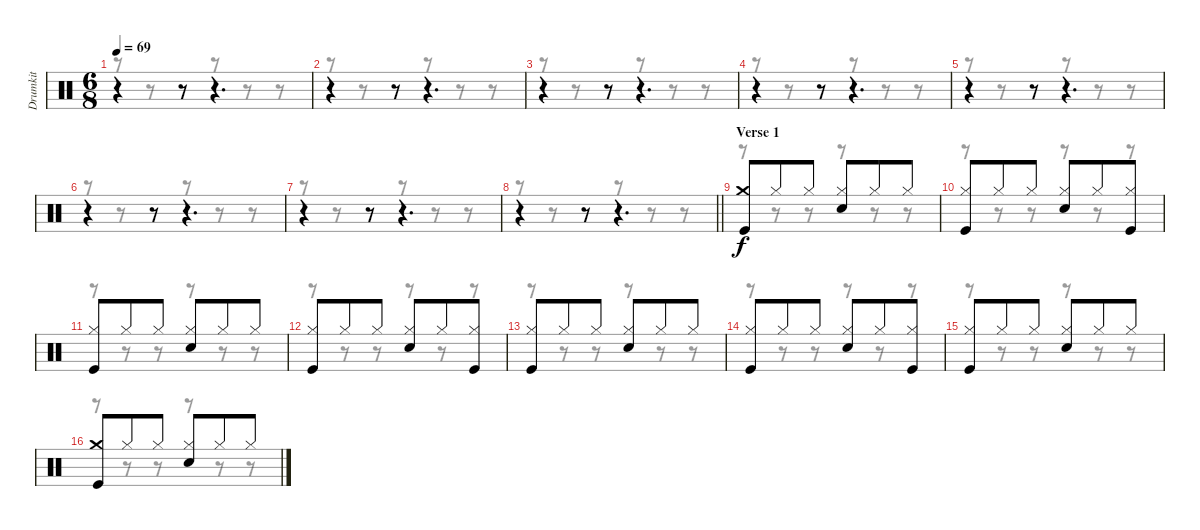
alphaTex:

\track ("Drumkit" "Drumkit") {instrument percussion}
\staff {score}
\articulation defaults
\voice
\ts (6 8)
\tempo 69
\clef neutral
\ks c
r.4{dy f} r.8 r.4{d} |
r.4 r.8 r.4{d} |
r.4 r.8 r.4{d} |
r.4 r.8 r.4{d} |
r.4 r.8 r.4{d} |
r.4 r.8 r.4{d} |
r.4 r.8 r.4{d} |
\barLineRight lightlight
r.4 r.8 r.4{d} |
\section ("" "Verse 1")
("Crash medium (hit)" "Kick (hit)").8 "Hi-Hat (closed)".8 "Hi-Hat (closed)".8 ("Hi-Hat (closed)" "Snare (hit) 2").8 "Hi-Hat (closed)".8 "Hi-Hat (closed)".8 |
("Hi-Hat (closed)" "Kick (hit)").8 "Hi-Hat (closed)".8 "Hi-Hat (closed)".8 ("Hi-Hat (closed)" "Snare (hit) 2").8 "Hi-Hat (closed)".8 ("Hi-Hat (closed)" "Kick (hit)").8 |
("Hi-Hat (closed)" "Kick (hit)").8 "Hi-Hat (closed)".8 "Hi-Hat (closed)".8 ("Hi-Hat (closed)" "Snare (hit) 2").8 "Hi-Hat (closed)".8 "Hi-Hat (closed)".8 |
("Hi-Hat (closed)" "Kick (hit)").8 "Hi-Hat (closed)".8 "Hi-Hat (closed)".8 ("Hi-Hat (closed)" "Snare (hit) 2").8 "Hi-Hat (closed)".8 ("Hi-Hat (closed)" "Kick (hit)").8 |
("Hi-Hat (closed)" "Kick (hit)").8 "Hi-Hat (closed)".8 "Hi-Hat (closed)".8 ("Hi-Hat (closed)" "Snare (hit) 2").8 "Hi-Hat (closed)".8 "Hi-Hat (closed)".8 |
("Hi-Hat (closed)" "Kick (hit)").8 "Hi-Hat (closed)".8 "Hi-Hat (closed)".8 ("Hi-Hat (closed)" "Snare (hit) 2").8 "Hi-Hat (closed)".8 ("Hi-Hat (closed)" "Kick (hit)").8 |
("Hi-Hat (closed)" "Kick (hit)").8 "Hi-Hat (closed)".8 "Hi-Hat (closed)".8 ("Hi-Hat (closed)" "Snare (hit) 2").8 "Hi-Hat (closed)".8 "Hi-Hat (closed)".8 |
("Crash medium (hit)" "Kick (hit)").8 "Hi-Hat (closed)".8 "Hi-Hat (closed)".8 ("Hi-Hat (closed)" "Snare (hit) 2").8 "Hi-Hat (closed)".8 "Hi-Hat (closed)".8
\voice
\clef neutral
\ottava regular
\simile none
\ks c
r.8{dy f} r.8 r.8 r.8 r.8 r.8 |
r.8 r.8 r.8 r.8 r.8 r.8 |
r.8 r.8 r.8 r.8 r.8 r.8 |
r.8 r.8 r.8 r.8 r.8 r.8 |
r.8 r.8 r.8 r.8 r.8 r.8 |
r.8 r.8 r.8 r.8 r.8 r.8 |
r.8 r.8 r.8 r.8 r.8 r.8 |
\barLineRight lightlight
r.8 r.8 r.8 r.8 r.8 r.8 |
r.8 r.8 r.8 r.8 r.8 r.8 |
r.8 r.8 r.8 r.8 r.8 r.8 |
r.8 r.8 r.8 r.8 r.8 r.8 |
r.8 r.8 r.8 r.8 r.8 r.8 |
r.8 r.8 r.8 r.8 r.8 r.8 |
r.8 r.8 r.8 r.8 r.8 r.8 |
r.8 r.8 r.8 r.8 r.8 r.8 |
r.8 r.8 r.8 r.8 r.8 r.8
